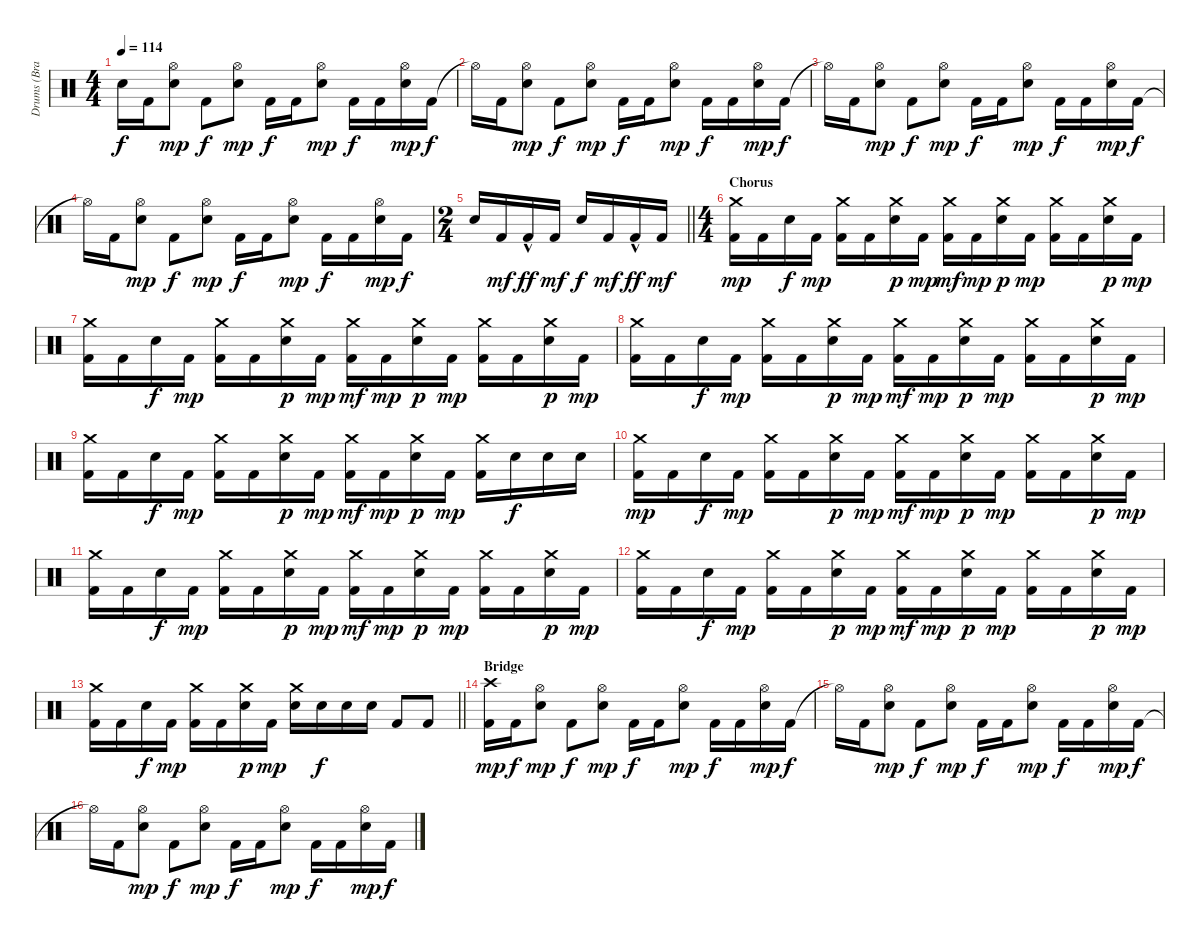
\track ("Drums (Brandon Saller)" "Drums (Bra") {instrument percussion}
\staff {score}
\articulation defaults
\ts (4 4)
\tempo 114
\clef neutral
\ks c "Snare (hit)"{t}.16{dy f} "Kick (hit) 2".16
("Hi-Hat (open)" "Electric Snare (hit)").8{dy mp} "Kick (hit) 2".8{dy f} ("Hi-Hat (open)" "Electric Snare (hit)").8{dy mp} "Kick (hit) 2".16{dy f} "Kick (hit) 2".16 ("Hi-Hat (open)" "Electric Snare (hit)").8{dy mp} "Kick (hit) 2".16{dy f} "Kick (hit) 2".16 ("Hi-Hat (open)" "Electric Snare (hit)").16{dy mp} "Kick (hit) 2".16{dy f} |
"Hi-Hat (open)"{t}.16 "Kick (hit) 2".16 ("Hi-Hat (open)" "Electric Snare (hit)").8{dy mp} "Kick (hit) 2".8{dy f} ("Hi-Hat (open)" "Electric Snare (hit)").8{dy mp} "Kick (hit) 2".16{dy f} "Kick (hit) 2".16 ("Hi-Hat (open)" "Electric Snare (hit)").8{dy mp} "Kick (hit) 2".16{dy f} "Kick (hit) 2".16 ("Hi-Hat (open)" "Electric Snare (hit)").16{dy mp} "Kick (hit) 2".16{dy f} |
"Hi-Hat (open)"{t}.16 "Kick (hit) 2".16 ("Hi-Hat (open)" "Electric Snare (hit)").8{dy mp} "Kick (hit) 2".8{dy f} ("Hi-Hat (open)" "Electric Snare (hit)").8{dy mp} "Kick (hit) 2".16{dy f} "Kick (hit) 2".16 ("Hi-Hat (open)" "Electric Snare (hit)").8{dy mp} "Kick (hit) 2".16{dy f} "Kick (hit) 2".16 ("Hi-Hat (open)" "Electric Snare (hit)").16{dy mp} "Kick (hit) 2".16{dy f} |
"Hi-Hat (open)"{t}.16 "Kick (hit) 2".16 ("Hi-Hat (open)" "Electric Snare (hit)").8{dy mp} "Kick (hit) 2".8{dy f} ("Hi-Hat (open)" "Electric Snare (hit)").8{dy mp} "Kick (hit) 2".16{dy f} "Kick (hit) 2".16 ("Hi-Hat (open)" "Electric Snare (hit)").8{dy mp} "Kick (hit) 2".16{dy f} "Kick (hit) 2".16 ("Hi-Hat (open)" "Electric Snare (hit)").16{dy mp} "Kick (hit) 2".16{dy f} |
\ts (2 4)
\barLineRight lightlight "Electric Snare (hit)".16 "Kick (hit) 2".16{dy mf} "Kick (hit) 2"{hac}.16{dy ff} "Kick (hit) 2".16{dy mf} "Electric Snare (hit)".16{dy f} "Kick (hit) 2".16{dy mf} "Kick (hit) 2"{hac}.16{dy ff} "Kick (hit) 2".16{dy mf}
|
\ts (4 4)
\section ("" "Chorus")
("Crash medium (hit)" "Kick (hit) 2").16{dy mp} "Kick (hit) 2".16 "Electric Snare (hit)".16{dy f} "Kick (hit) 2".16{dy mp} ("Crash medium (hit)" "Kick (hit) 2").16 "Kick (hit) 2".16 ("Crash medium (hit)" "Electric Snare (hit)").16{dy p} "Kick (hit) 2".16{dy mp} ("Crash medium (hit)" "Kick (hit) 2").16{dy mf} "Kick (hit) 2".16{dy mp} ("Crash medium (hit)" "Electric Snare (hit)").16{dy p} "Kick (hit) 2".16{dy mp} ("Crash medium (hit)" "Kick (hit) 2").16 "Kick (hit) 2".16 ("Crash medium (hit)" "Electric Snare (hit)").16{dy p} "Kick (hit) 2".16{dy mp} |
("Crash medium (hit)" "Kick (hit) 2").16 "Kick (hit) 2".16 "Electric Snare (hit)".16{dy f} "Kick (hit) 2".16{dy mp} ("Crash medium (hit)" "Kick (hit) 2").16 "Kick (hit) 2".16 ("Crash medium (hit)" "Electric Snare (hit)").16{dy p} "Kick (hit) 2".16{dy mp} ("Crash medium (hit)" "Kick (hit) 2").16{dy mf} "Kick (hit) 2".16{dy mp} ("Crash medium (hit)" "Electric Snare (hit)").16{dy p} "Kick (hit) 2".16{dy mp} ("Crash medium (hit)" "Kick (hit) 2").16 "Kick (hit) 2".16 ("Crash medium (hit)" "Electric Snare (hit)").16{dy p} "Kick (hit) 2".16{dy mp} |
("Crash medium (hit)" "Kick (hit) 2").16 "Kick (hit) 2".16 "Electric Snare (hit)".16{dy f} "Kick (hit) 2".16{dy mp} ("Crash medium (hit)" "Kick (hit) 2").16 "Kick (hit) 2".16 ("Crash medium (hit)" "Electric Snare (hit)").16{dy p} "Kick (hit) 2".16{dy mp} ("Crash medium (hit)" "Kick (hit) 2").16{dy mf} "Kick (hit) 2".16{dy mp} ("Crash medium (hit)" "Electric Snare (hit)").16{dy p} "Kick (hit) 2".16{dy mp} ("Crash medium (hit)" "Kick (hit) 2").16 "Kick (hit) 2".16 ("Crash medium (hit)" "Electric Snare (hit)").16{dy p} "Kick (hit) 2".16{dy mp} |
("Crash medium (hit)" "Kick (hit) 2").16 "Kick (hit) 2".16 "Electric Snare (hit)".16{dy f} "Kick (hit) 2".16{dy mp} ("Crash medium (hit)" "Kick (hit) 2").16 "Kick (hit) 2".16 ("Crash medium (hit)" "Electric Snare (hit)").16{dy p} "Kick (hit) 2".16{dy mp} ("Crash medium (hit)" "Kick (hit) 2").16{dy mf} "Kick (hit) 2".16{dy mp} ("Crash medium (hit)" "Electric Snare (hit)").16{dy p} "Kick (hit) 2".16{dy mp} ("Crash medium (hit)" "Kick (hit) 2").16 "Electric Snare (hit)".16{dy f} "Electric Snare (hit)".16 "Electric Snare (hit)".16 |
("Crash medium (hit)" "Kick (hit) 2").16{dy mp} "Kick (hit) 2".16 "Electric Snare (hit)".16{dy f} "Kick (hit) 2".16{dy mp} ("Crash medium (hit)" "Kick (hit) 2").16 "Kick (hit) 2".16 ("Crash medium (hit)" "Electric Snare (hit)").16{dy p} "Kick (hit) 2".16{dy mp} ("Crash medium (hit)" "Kick (hit) 2").16{dy mf} "Kick (hit) 2".16{dy mp} ("Crash medium (hit)" "Electric Snare (hit)").16{dy p} "Kick (hit) 2".16{dy mp} ("Crash medium (hit)" "Kick (hit) 2").16 "Kick (hit) 2".16 ("Crash medium (hit)" "Electric Snare (hit)").16{dy p} "Kick (hit) 2".16{dy mp} |
("Crash medium (hit)" "Kick (hit) 2").16 "Kick (hit) 2".16 "Electric Snare (hit)".16{dy f} "Kick (hit) 2".16{dy mp} ("Crash medium (hit)" "Kick (hit) 2").16 "Kick (hit) 2".16 ("Crash medium (hit)" "Electric Snare (hit)").16{dy p} "Kick (hit) 2".16{dy mp} ("Crash medium (hit)" "Kick (hit) 2").16{dy mf} "Kick (hit) 2".16{dy mp} ("Crash medium (hit)" "Electric Snare (hit)").16{dy p} "Kick (hit) 2".16{dy mp} ("Crash medium (hit)" "Kick (hit) 2").16 "Kick (hit) 2".16 ("Crash medium (hit)" "Electric Snare (hit)").16{dy p} "Kick (hit) 2".16{dy mp} |
("Crash medium (hit)" "Kick (hit) 2").16 "Kick (hit) 2".16 "Electric Snare (hit)".16{dy f} "Kick (hit) 2".16{dy mp} ("Crash medium (hit)" "Kick (hit) 2").16 "Kick (hit) 2".16 ("Crash medium (hit)" "Electric Snare (hit)").16{dy p} "Kick (hit) 2".16{dy mp} ("Crash medium (hit)" "Kick (hit) 2").16{dy mf} "Kick (hit) 2".16{dy mp} ("Crash medium (hit)" "Electric Snare (hit)").16{dy p} "Kick (hit) 2".16{dy mp} ("Crash medium (hit)" "Kick (hit) 2").16 "Kick (hit) 2".16 ("Crash medium (hit)" "Electric Snare (hit)").16{dy p} "Kick (hit) 2".16{dy mp} |
\barLineRight lightlight
("Crash medium (hit)" "Kick (hit) 2").16 "Kick (hit) 2".16 "Electric Snare (hit)".16{dy f} "Kick (hit) 2".16{dy mp} ("Crash medium (hit)" "Kick (hit) 2").16 "Kick (hit) 2".16 ("Crash medium (hit)" "Electric Snare (hit)").16{dy p} "Kick (hit) 2".16{dy mp} ("Crash medium (hit)" "Electric Snare (hit)").16 "Electric Snare (hit)".16{dy f} "Electric Snare (hit)".16 "Electric Snare (hit)".16 "Kick (hit) 2".8 "Kick (hit) 2".8 |
\section ("" "Bridge")
("Crash high (hit)" "Kick (hit) 2").16{dy mp} "Kick (hit) 2".16{dy f} ("Hi-Hat (open)" "Electric Snare (hit)").8{dy mp} "Kick (hit) 2".8{dy f} ("Hi-Hat (open)" "Electric Snare (hit)").8{dy mp} "Kick (hit) 2".16{dy f} "Kick (hit) 2".16 ("Hi-Hat (open)" "Electric Snare (hit)").8{dy mp} "Kick (hit) 2".16{dy f} "Kick (hit) 2".16 ("Hi-Hat (open)" "Electric Snare (hit)").16{dy mp} "Kick (hit) 2".16{dy f} |
"Hi-Hat (open)"{t}.16 "Kick (hit) 2".16 ("Hi-Hat (open)" "Electric Snare (hit)").8{dy mp} "Kick (hit) 2".8{dy f} ("Hi-Hat (open)" "Electric Snare (hit)").8{dy mp} "Kick (hit) 2".16{dy f} "Kick (hit) 2".16 ("Hi-Hat (open)" "Electric Snare (hit)").8{dy mp} "Kick (hit) 2".16{dy f} "Kick (hit) 2".16 ("Hi-Hat (open)" "Electric Snare (hit)").16{dy mp} "Kick (hit) 2".16{dy f} |
"Hi-Hat (open)"{t}.16 "Kick (hit) 2".16 ("Hi-Hat (open)" "Electric Snare (hit)").8{dy mp} "Kick (hit) 2".8{dy f} ("Hi-Hat (open)" "Electric Snare (hit)").8{dy mp} "Kick (hit) 2".16{dy f} "Kick (hit) 2".16 ("Hi-Hat (open)" "Electric Snare (hit)").8{dy mp} "Kick (hit) 2".16{dy f} "Kick (hit) 2".16 ("Hi-Hat (open)" "Electric Snare (hit)").16{dy mp} "Kick (hit) 2".16{dy f}
